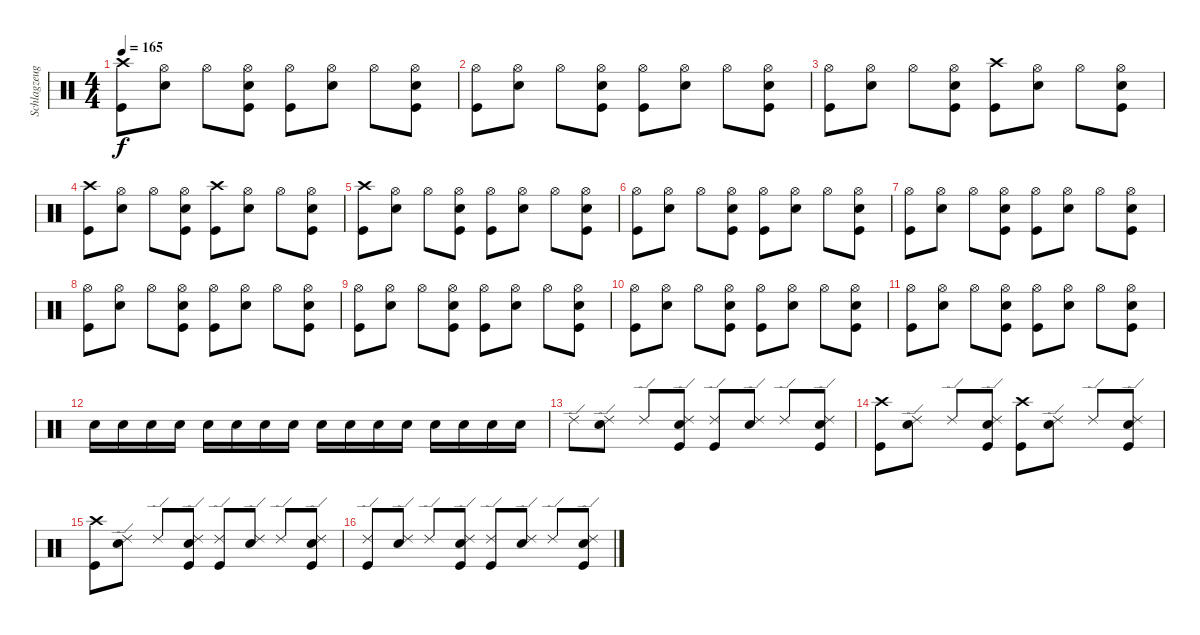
\track ("Schlagzeug" "Schlagzeug") {instrument percussion}
\staff {score}
\articulation defaults
\ts (4 4)
\tempo 165
\clef neutral
\ks c
("Crash high (hit)" "Kick (hit)").8{dy f} ("Hi-Hat (open)" "Snare (hit) 2").8 "Hi-Hat (open)".8 ("Hi-Hat (open)" "Snare (hit) 2" "Kick (hit)").8 ("Hi-Hat (open)" "Kick (hit)").8 ("Hi-Hat (open)" "Snare (hit) 2").8 "Hi-Hat (open)".8 ("Hi-Hat (open)" "Snare (hit) 2" "Kick (hit)").8 |
("Hi-Hat (open)" "Kick (hit)").8 ("Hi-Hat (open)" "Snare (hit) 2").8 "Hi-Hat (open)".8 ("Hi-Hat (open)" "Snare (hit) 2" "Kick (hit)").8 ("Hi-Hat (open)" "Kick (hit)").8 ("Hi-Hat (open)" "Snare (hit) 2").8 "Hi-Hat (open)".8 ("Hi-Hat (open)" "Snare (hit) 2" "Kick (hit)").8 |
("Hi-Hat (open)" "Kick (hit)").8 ("Hi-Hat (open)" "Snare (hit) 2").8 "Hi-Hat (open)".8 ("Hi-Hat (open)" "Snare (hit) 2" "Kick (hit)").8 ("Crash high (hit)" "Kick (hit)").8 ("Hi-Hat (open)" "Snare (hit) 2").8 "Hi-Hat (open)".8 ("Hi-Hat (open)" "Snare (hit) 2" "Kick (hit)").8 |
("Crash high (hit)" "Kick (hit)").8 ("Hi-Hat (open)" "Snare (hit) 2").8 "Hi-Hat (open)".8 ("Hi-Hat (open)" "Snare (hit) 2" "Kick (hit)").8 ("Crash high (hit)" "Kick (hit)").8 ("Hi-Hat (open)" "Snare (hit) 2").8 "Hi-Hat (open)".8 ("Hi-Hat (open)" "Snare (hit) 2" "Kick (hit)").8 |
("Crash high (hit)" "Kick (hit)").8 ("Hi-Hat (open)" "Snare (hit) 2").8 "Hi-Hat (open)".8 ("Hi-Hat (open)" "Snare (hit) 2" "Kick (hit)").8 ("Hi-Hat (open)" "Kick (hit)").8 ("Hi-Hat (open)" "Snare (hit) 2").8 "Hi-Hat (open)".8 ("Hi-Hat (open)" "Snare (hit) 2" "Kick (hit)").8 |
("Hi-Hat (open)" "Kick (hit)").8 ("Hi-Hat (open)" "Snare (hit) 2").8 "Hi-Hat (open)".8 ("Hi-Hat (open)" "Snare (hit) 2" "Kick (hit)").8 ("Hi-Hat (open)" "Kick (hit)").8 ("Hi-Hat (open)" "Snare (hit) 2").8 "Hi-Hat (open)".8 ("Hi-Hat (open)" "Snare (hit) 2" "Kick (hit)").8 |
("Hi-Hat (open)" "Kick (hit)").8 ("Hi-Hat (open)" "Snare (hit) 2").8 "Hi-Hat (open)".8 ("Hi-Hat (open)" "Snare (hit) 2" "Kick (hit)").8 ("Hi-Hat (open)" "Kick (hit)").8 ("Hi-Hat (open)" "Snare (hit) 2").8 "Hi-Hat (open)".8 ("Hi-Hat (open)" "Snare (hit) 2" "Kick (hit)").8 |
("Hi-Hat (open)" "Kick (hit)").8 ("Hi-Hat (open)" "Snare (hit) 2").8 "Hi-Hat (open)".8 ("Hi-Hat (open)" "Snare (hit) 2" "Kick (hit)").8 ("Hi-Hat (open)" "Kick (hit)").8 ("Hi-Hat (open)" "Snare (hit) 2").8 "Hi-Hat (open)".8 ("Hi-Hat (open)" "Snare (hit) 2" "Kick (hit)").8 |
("Hi-Hat (open)" "Kick (hit)").8 ("Hi-Hat (open)" "Snare (hit) 2").8 "Hi-Hat (open)".8 ("Hi-Hat (open)" "Snare (hit) 2" "Kick (hit)").8 ("Hi-Hat (open)" "Kick (hit)").8 ("Hi-Hat (open)" "Snare (hit) 2").8 "Hi-Hat (open)".8 ("Hi-Hat (open)" "Snare (hit) 2" "Kick (hit)").8 |
("Hi-Hat (open)" "Kick (hit)").8 ("Hi-Hat (open)" "Snare (hit) 2").8 "Hi-Hat (open)".8 ("Hi-Hat (open)" "Snare (hit) 2" "Kick (hit)").8 ("Hi-Hat (open)" "Kick (hit)").8 ("Hi-Hat (open)" "Snare (hit) 2").8 "Hi-Hat (open)".8 ("Hi-Hat (open)" "Snare (hit) 2" "Kick (hit)").8 |
("Hi-Hat (open)" "Kick (hit)").8 ("Hi-Hat (open)" "Snare (hit) 2").8 "Hi-Hat (open)".8 ("Hi-Hat (open)" "Snare (hit) 2" "Kick (hit)").8 ("Hi-Hat (open)" "Kick (hit)").8 ("Hi-Hat (open)" "Snare (hit) 2").8 "Hi-Hat (open)".8 ("Hi-Hat (open)" "Snare (hit) 2" "Kick (hit)").8 |
"Snare (hit) 2".16 "Snare (hit) 2".16 "Snare (hit) 2".16 "Snare (hit) 2".16 "Snare (hit) 2".16 "Snare (hit) 2".16 "Snare (hit) 2".16 "Snare (hit) 2".16 "Snare (hit) 2".16 "Snare (hit) 2".16 "Snare (hit) 2".16 "Snare (hit) 2".16 "Snare (hit) 2".16 "Snare (hit) 2".16 "Snare (hit) 2".16 "Snare (hit) 2".16 |
"Ride (edge) 2".8 ("Ride (edge) 2" "Snare (hit) 2").8 "Ride (edge) 2".8 ("Ride (edge) 2" "Snare (hit) 2" "Kick (hit)").8 ("Ride (edge) 2" "Kick (hit)").8 ("Ride (edge) 2" "Snare (hit) 2").8 "Ride (edge) 2".8 ("Ride (edge) 2" "Snare (hit) 2" "Kick (hit)").8 |
("Crash high (hit)" "Kick (hit)").8 ("Ride (edge) 2" "Snare (hit) 2").8 "Ride (edge) 2".8 ("Ride (edge) 2" "Snare (hit) 2" "Kick (hit)").8 ("Crash high (hit)" "Kick (hit)").8 ("Ride (edge) 2" "Snare (hit) 2").8 "Ride (edge) 2".8 ("Ride (edge) 2" "Snare (hit) 2" "Kick (hit)").8 |
("Crash high (hit)" "Kick (hit)").8 ("Ride (edge) 2" "Snare (hit) 2").8 "Ride (edge) 2".8 ("Ride (edge) 2" "Snare (hit) 2" "Kick (hit)").8 ("Ride (edge) 2" "Kick (hit)").8 ("Ride (edge) 2" "Snare (hit) 2").8 "Ride (edge) 2".8 ("Ride (edge) 2" "Snare (hit) 2" "Kick (hit)").8 |
("Ride (edge) 2" "Kick (hit)").8 ("Ride (edge) 2" "Snare (hit) 2").8 "Ride (edge) 2".8 ("Ride (edge) 2" "Snare (hit) 2" "Kick (hit)").8 ("Ride (edge) 2" "Kick (hit)").8 ("Ride (edge) 2" "Snare (hit) 2").8 "Ride (edge) 2".8 ("Ride (edge) 2" "Snare (hit) 2" "Kick (hit)").8
